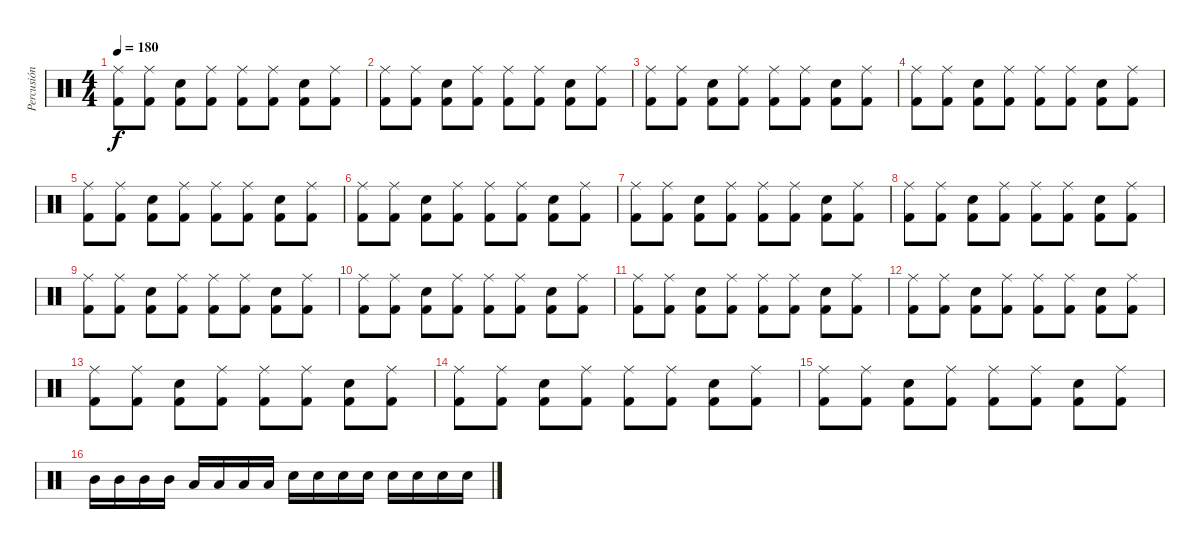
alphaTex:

\track ("Percusión" "Percusión") {instrument percussion}
\staff {score}
\articulation defaults
\ts (4 4)
\tempo 180
\clef neutral
\ks c
("Kick (hit) 2" "Ride (middle)").8{dy f} ("Kick (hit) 2" "Ride (middle)").8 ("Kick (hit) 2" "Snare (hit) 2").8 ("Kick (hit) 2" "Ride (middle)").8 ("Kick (hit) 2" "Ride (middle)").8 ("Kick (hit) 2" "Ride (middle)").8 ("Kick (hit) 2" "Snare (hit) 2").8 ("Kick (hit) 2" "Ride (middle)").8 |
("Kick (hit) 2" "Ride (middle)").8 ("Kick (hit) 2" "Ride (middle)").8 ("Kick (hit) 2" "Snare (hit) 2").8 ("Kick (hit) 2" "Ride (middle)").8 ("Kick (hit) 2" "Ride (middle)").8 ("Kick (hit) 2" "Ride (middle)").8 ("Kick (hit) 2" "Snare (hit) 2").8 ("Kick (hit) 2" "Ride (middle)").8 |
("Kick (hit) 2" "Ride (middle)").8 ("Kick (hit) 2" "Ride (middle)").8 ("Kick (hit) 2" "Snare (hit) 2").8 ("Kick (hit) 2" "Ride (middle)").8 ("Kick (hit) 2" "Ride (middle)").8 ("Kick (hit) 2" "Ride (middle)").8 ("Kick (hit) 2" "Snare (hit) 2").8 ("Kick (hit) 2" "Ride (middle)").8 |
("Kick (hit) 2" "Ride (middle)").8 ("Kick (hit) 2" "Ride (middle)").8 ("Kick (hit) 2" "Snare (hit) 2").8 ("Kick (hit) 2" "Ride (middle)").8 ("Kick (hit) 2" "Ride (middle)").8 ("Kick (hit) 2" "Ride (middle)").8 ("Kick (hit) 2" "Snare (hit) 2").8 ("Kick (hit) 2" "Ride (middle)").8 |
("Kick (hit) 2" "Ride (middle)").8 ("Kick (hit) 2" "Ride (middle)").8 ("Kick (hit) 2" "Snare (hit) 2").8 ("Kick (hit) 2" "Ride (middle)").8 ("Kick (hit) 2" "Ride (middle)").8 ("Kick (hit) 2" "Ride (middle)").8 ("Kick (hit) 2" "Snare (hit) 2").8 ("Kick (hit) 2" "Ride (middle)").8 |
("Kick (hit) 2" "Ride (middle)").8 ("Kick (hit) 2" "Ride (middle)").8 ("Kick (hit) 2" "Snare (hit) 2").8 ("Kick (hit) 2" "Ride (middle)").8 ("Kick (hit) 2" "Ride (middle)").8 ("Kick (hit) 2" "Ride (middle)").8 ("Kick (hit) 2" "Snare (hit) 2").8 ("Kick (hit) 2" "Ride (middle)").8 |
("Kick (hit) 2" "Ride (middle)").8 ("Kick (hit) 2" "Ride (middle)").8 ("Kick (hit) 2" "Snare (hit) 2").8 ("Kick (hit) 2" "Ride (middle)").8 ("Kick (hit) 2" "Ride (middle)").8 ("Kick (hit) 2" "Ride (middle)").8 ("Kick (hit) 2" "Snare (hit) 2").8 ("Kick (hit) 2" "Ride (middle)").8 |
("Kick (hit) 2" "Ride (middle)").8 ("Kick (hit) 2" "Ride (middle)").8 ("Kick (hit) 2" "Snare (hit) 2").8 ("Kick (hit) 2" "Ride (middle)").8 ("Kick (hit) 2" "Ride (middle)").8 ("Kick (hit) 2" "Ride (middle)").8 ("Kick (hit) 2" "Snare (hit) 2").8 ("Kick (hit) 2" "Ride (middle)").8 |
("Kick (hit) 2" "Ride (middle)").8 ("Kick (hit) 2" "Ride (middle)").8 ("Kick (hit) 2" "Snare (hit) 2").8 ("Kick (hit) 2" "Ride (middle)").8 ("Kick (hit) 2" "Ride (middle)").8 ("Kick (hit) 2" "Ride (middle)").8 ("Kick (hit) 2" "Snare (hit) 2").8 ("Kick (hit) 2" "Ride (middle)").8 |
("Kick (hit) 2" "Ride (middle)").8 ("Kick (hit) 2" "Ride (middle)").8 ("Kick (hit) 2" "Snare (hit) 2").8 ("Kick (hit) 2" "Ride (middle)").8 ("Kick (hit) 2" "Ride (middle)").8 ("Kick (hit) 2" "Ride (middle)").8 ("Kick (hit) 2" "Snare (hit) 2").8 ("Kick (hit) 2" "Ride (middle)").8 |
("Kick (hit) 2" "Ride (middle)").8 ("Kick (hit) 2" "Ride (middle)").8 ("Kick (hit) 2" "Snare (hit) 2").8 ("Kick (hit) 2" "Ride (middle)").8 ("Kick (hit) 2" "Ride (middle)").8 ("Kick (hit) 2" "Ride (middle)").8 ("Kick (hit) 2" "Snare (hit) 2").8 ("Kick (hit) 2" "Ride (middle)").8 |
("Kick (hit) 2" "Ride (middle)").8 ("Kick (hit) 2" "Ride (middle)").8 ("Kick (hit) 2" "Snare (hit) 2").8 ("Kick (hit) 2" "Ride (middle)").8 ("Kick (hit) 2" "Ride (middle)").8 ("Kick (hit) 2" "Ride (middle)").8 ("Kick (hit) 2" "Snare (hit) 2").8 ("Kick (hit) 2" "Ride (middle)").8 |
("Kick (hit) 2" "Ride (middle)").8 ("Kick (hit) 2" "Ride (middle)").8 ("Kick (hit) 2" "Snare (hit) 2").8 ("Kick (hit) 2" "Ride (middle)").8 ("Kick (hit) 2" "Ride (middle)").8 ("Kick (hit) 2" "Ride (middle)").8 ("Kick (hit) 2" "Snare (hit) 2").8 ("Kick (hit) 2" "Ride (middle)").8 |
("Kick (hit) 2" "Ride (middle)").8 ("Kick (hit) 2" "Ride (middle)").8 ("Kick (hit) 2" "Snare (hit) 2").8 ("Kick (hit) 2" "Ride (middle)").8 ("Kick (hit) 2" "Ride (middle)").8 ("Kick (hit) 2" "Ride (middle)").8 ("Kick (hit) 2" "Snare (hit) 2").8 ("Kick (hit) 2" "Ride (middle)").8 |
("Kick (hit) 2" "Ride (middle)").8 ("Kick (hit) 2" "Ride (middle)").8 ("Kick (hit) 2" "Snare (hit) 2").8 ("Kick (hit) 2" "Ride (middle)").8 ("Kick (hit) 2" "Ride (middle)").8 ("Kick (hit) 2" "Ride (middle)").8 ("Kick (hit) 2" "Snare (hit) 2").8 ("Kick (hit) 2" "Ride (middle)").8 |
"Mid Tom (hit)".16 "Mid Tom (hit)".16 "Mid Tom (hit)".16 "Mid Tom (hit)".16 "Low Tom (hit)".16 "Low Tom (hit)".16 "Low Tom (hit)".16 "Low Tom (hit)".16 "Snare (hit) 2".16 "Snare (hit) 2".16 "Snare (hit) 2".16 "Snare (hit) 2".16 "Snare (hit) 2".16 "Snare (hit) 2".16 "Snare (hit) 2".16 "Snare (hit) 2".16
